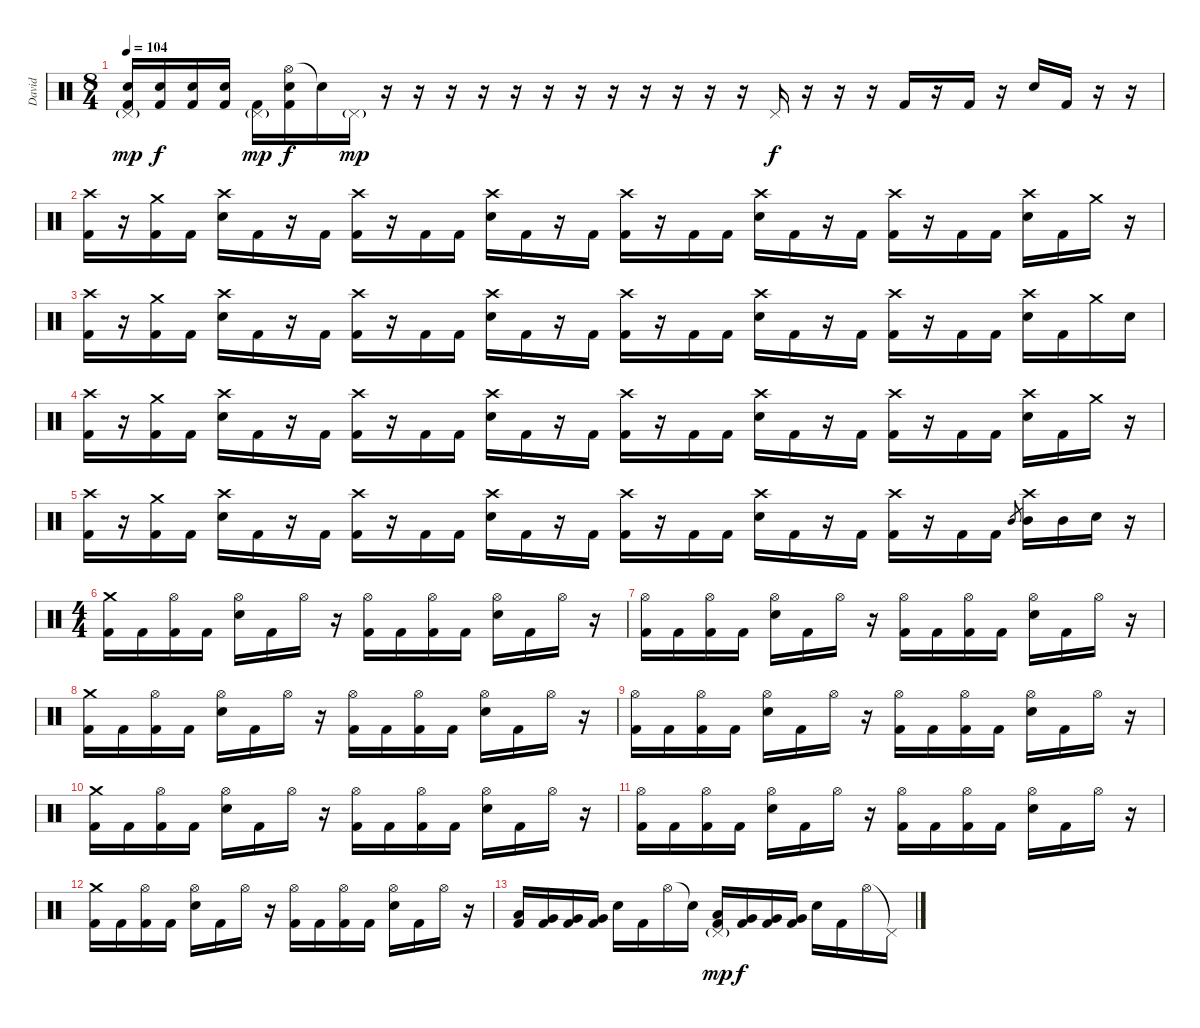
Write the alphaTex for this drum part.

\track ("David" "David") {instrument percussion}
\staff {score}
\articulation defaults
\ts (8 4)
\tempo 104
\clef neutral
\ks c
("Pedal Hi-Hat (hit)"{g} "Snare (hit) 2" "Kick (hit) 2").16{dy mp} ("Snare (hit) 2" "Kick (hit) 2").16{dy f} ("Snare (hit) 2" "Kick (hit) 2").16 ("Snare (hit) 2" "Kick (hit) 2").16 ("Pedal Hi-Hat (hit)"{g} "Kick (hit) 2").16{dy mp} ("Hi-Hat (open)" "Snare (hit) 2" "Kick (hit) 2").16{dy f} "Snare (hit)"{t}.16 "Pedal Hi-Hat (hit)"{g}.16{dy mp} r.16 r.16 r.16 r.16 r.16 r.16 r.16 r.16 r.16 r.16 r.16 r.16 "Pedal Hi-Hat (hit)".16{dy f} r.16 r.16 r.16 "Kick (hit) 2".16 r.16 "Kick (hit) 2".16 r.16 "Snare (hit) 2".16 "Kick (hit) 2".16 r.16 r.16 |
("Crash high (hit)" "Kick (hit) 2").16 r.16 ("Crash medium (hit)" "Kick (hit) 2").16 "Kick (hit) 2".16 ("Crash high (hit)" "Snare (hit) 2").16 "Kick (hit) 2".16 r.16 "Kick (hit) 2".16 ("Crash high (hit)" "Kick (hit) 2").16 r.16 "Kick (hit) 2".16 "Kick (hit) 2".16 ("Crash high (hit)" "Snare (hit) 2").16 "Kick (hit) 2".16 r.16 "Kick (hit) 2".16 ("Crash high (hit)" "Kick (hit) 2").16 r.16 "Kick (hit) 2".16 "Kick (hit) 2".16 ("Crash high (hit)" "Snare (hit) 2").16 "Kick (hit) 2".16 r.16 "Kick (hit) 2".16 ("Crash high (hit)" "Kick (hit) 2").16 r.16 "Kick (hit) 2".16 "Kick (hit) 2".16 ("Crash high (hit)" "Snare (hit) 2").16 "Kick (hit) 2".16 "Crash medium (hit)".16 r.16 |
("Crash high (hit)" "Kick (hit) 2").16 r.16 ("Crash medium (hit)" "Kick (hit) 2").16 "Kick (hit) 2".16 ("Crash high (hit)" "Snare (hit) 2").16 "Kick (hit) 2".16 r.16 "Kick (hit) 2".16 ("Crash high (hit)" "Kick (hit) 2").16 r.16 "Kick (hit) 2".16 "Kick (hit) 2".16 ("Crash high (hit)" "Snare (hit) 2").16 "Kick (hit) 2".16 r.16 "Kick (hit) 2".16 ("Crash high (hit)" "Kick (hit) 2").16 r.16 "Kick (hit) 2".16 "Kick (hit) 2".16 ("Crash high (hit)" "Snare (hit) 2").16 "Kick (hit) 2".16 r.16 "Kick (hit) 2".16 ("Crash high (hit)" "Kick (hit) 2").16 r.16 "Kick (hit) 2".16 "Kick (hit) 2".16 ("Crash high (hit)" "Snare (hit) 2").16 "Kick (hit) 2".16 "Crash medium (hit)".16 "Snare (hit) 2".16 |
("Crash high (hit)" "Kick (hit) 2").16 r.16 ("Crash medium (hit)" "Kick (hit) 2").16 "Kick (hit) 2".16 ("Crash high (hit)" "Snare (hit) 2").16 "Kick (hit) 2".16 r.16 "Kick (hit) 2".16 ("Crash high (hit)" "Kick (hit) 2").16 r.16 "Kick (hit) 2".16 "Kick (hit) 2".16 ("Crash high (hit)" "Snare (hit) 2").16 "Kick (hit) 2".16 r.16 "Kick (hit) 2".16 ("Crash high (hit)" "Kick (hit) 2").16 r.16 "Kick (hit) 2".16 "Kick (hit) 2".16 ("Crash high (hit)" "Snare (hit) 2").16 "Kick (hit) 2".16 r.16 "Kick (hit) 2".16 ("Crash high (hit)" "Kick (hit) 2").16 r.16 "Kick (hit) 2".16 "Kick (hit) 2".16 ("Crash high (hit)" "Snare (hit) 2").16 "Kick (hit) 2".16 "Crash medium (hit)".16 r.16 |
("Crash high (hit)" "Kick (hit) 2").16 r.16 ("Crash medium (hit)" "Kick (hit) 2").16 "Kick (hit) 2".16 ("Crash high (hit)" "Snare (hit) 2").16 "Kick (hit) 2".16 r.16 "Kick (hit) 2".16 ("Crash high (hit)" "Kick (hit) 2").16 r.16 "Kick (hit) 2".16 "Kick (hit) 2".16 ("Crash high (hit)" "Snare (hit) 2").16 "Kick (hit) 2".16 r.16 "Kick (hit) 2".16 ("Crash high (hit)" "Kick (hit) 2").16 r.16 "Kick (hit) 2".16 "Kick (hit) 2".16 ("Crash high (hit)" "Snare (hit) 2").16 "Kick (hit) 2".16 r.16 "Kick (hit) 2".16 ("Crash high (hit)" "Kick (hit) 2").16 r.16 "Kick (hit) 2".16 "Kick (hit) 2".16 "Mid Tom (hit)".8{gr} ("Crash high (hit)" "Mid Tom (hit)").16 "Mid Tom (hit)".16 "Snare (hit) 2".16 r.16 |
\ts (4 4)
("Crash medium (hit)" "Kick (hit) 2").16 "Kick (hit) 2".16 ("Hi-Hat (open)" "Kick (hit) 2").16 "Kick (hit) 2".16 ("Hi-Hat (open)" "Snare (hit) 2").16 "Kick (hit) 2".16 "Hi-Hat (open)".16 r.16 ("Hi-Hat (open)" "Kick (hit) 2").16 "Kick (hit) 2".16 ("Hi-Hat (open)" "Kick (hit) 2").16 "Kick (hit) 2".16 ("Hi-Hat (open)" "Snare (hit) 2").16 "Kick (hit) 2".16 "Hi-Hat (open)".16 r.16 |
("Hi-Hat (open)" "Kick (hit) 2").16 "Kick (hit) 2".16 ("Hi-Hat (open)" "Kick (hit) 2").16 "Kick (hit) 2".16 ("Hi-Hat (open)" "Snare (hit) 2").16 "Kick (hit) 2".16 "Hi-Hat (open)".16 r.16 ("Hi-Hat (open)" "Kick (hit) 2").16 "Kick (hit) 2".16 ("Hi-Hat (open)" "Kick (hit) 2").16 "Kick (hit) 2".16 ("Hi-Hat (open)" "Snare (hit) 2").16 "Kick (hit) 2".16 "Hi-Hat (open)".16 r.16 |
("Crash medium (hit)" "Kick (hit) 2").16 "Kick (hit) 2".16 ("Hi-Hat (open)" "Kick (hit) 2").16 "Kick (hit) 2".16 ("Hi-Hat (open)" "Snare (hit) 2").16 "Kick (hit) 2".16 "Hi-Hat (open)".16 r.16 ("Hi-Hat (open)" "Kick (hit) 2").16 "Kick (hit) 2".16 ("Hi-Hat (open)" "Kick (hit) 2").16 "Kick (hit) 2".16 ("Hi-Hat (open)" "Snare (hit) 2").16 "Kick (hit) 2".16 "Hi-Hat (open)".16 r.16 |
("Hi-Hat (open)" "Kick (hit) 2").16 "Kick (hit) 2".16 ("Hi-Hat (open)" "Kick (hit) 2").16 "Kick (hit) 2".16 ("Hi-Hat (open)" "Snare (hit) 2").16 "Kick (hit) 2".16 "Hi-Hat (open)".16 r.16 ("Hi-Hat (open)" "Kick (hit) 2").16 "Kick (hit) 2".16 ("Hi-Hat (open)" "Kick (hit) 2").16 "Kick (hit) 2".16 ("Hi-Hat (open)" "Snare (hit) 2").16 "Kick (hit) 2".16 "Hi-Hat (open)".16 r.16 |
("Crash medium (hit)" "Kick (hit) 2").16 "Kick (hit) 2".16 ("Hi-Hat (open)" "Kick (hit) 2").16 "Kick (hit) 2".16 ("Hi-Hat (open)" "Snare (hit) 2").16 "Kick (hit) 2".16 "Hi-Hat (open)".16 r.16 ("Hi-Hat (open)" "Kick (hit) 2").16 "Kick (hit) 2".16 ("Hi-Hat (open)" "Kick (hit) 2").16 "Kick (hit) 2".16 ("Hi-Hat (open)" "Snare (hit) 2").16 "Kick (hit) 2".16 "Hi-Hat (open)".16 r.16 |
("Hi-Hat (open)" "Kick (hit) 2").16 "Kick (hit) 2".16 ("Hi-Hat (open)" "Kick (hit) 2").16 "Kick (hit) 2".16 ("Hi-Hat (open)" "Snare (hit) 2").16 "Kick (hit) 2".16 "Hi-Hat (open)".16 r.16 ("Hi-Hat (open)" "Kick (hit) 2").16 "Kick (hit) 2".16 ("Hi-Hat (open)" "Kick (hit) 2").16 "Kick (hit) 2".16 ("Hi-Hat (open)" "Snare (hit) 2").16 "Kick (hit) 2".16 "Hi-Hat (open)".16 r.16 |
("Crash medium (hit)" "Kick (hit) 2").16 "Kick (hit) 2".16 ("Hi-Hat (open)" "Kick (hit) 2").16 "Kick (hit) 2".16 ("Hi-Hat (open)" "Snare (hit) 2").16 "Kick (hit) 2".16 "Hi-Hat (open)".16 r.16 ("Hi-Hat (open)" "Kick (hit) 2").16 "Kick (hit) 2".16 ("Hi-Hat (open)" "Kick (hit) 2").16 "Kick (hit) 2".16 ("Hi-Hat (open)" "Snare (hit) 2").16 "Kick (hit) 2".16 "Hi-Hat (open)".16 r.16 |
("Low Tom (hit)" "Kick (hit) 2").16 ("Very Low Tom (hit)" "Kick (hit) 2").16 ("Very Low Tom (hit)" "Kick (hit) 2").16 ("Very Low Tom (hit)" "Kick (hit) 2").16 "Snare (hit) 2".16 "Kick (hit) 2".16 "Hi-Hat (open)".16 "Snare (hit)"{t}.16 ("Pedal Hi-Hat (hit)"{g} "Low Tom (hit)" "Kick (hit) 2").16{dy mp} ("Very Low Tom (hit)" "Kick (hit) 2").16{dy f} ("Very Low Tom (hit)" "Kick (hit) 2").16 ("Very Low Tom (hit)" "Kick (hit) 2").16 "Snare (hit) 2".16 "Kick (hit) 2".16 "Hi-Hat (open)".16 "Pedal Hi-Hat (hit)"{t}.16
